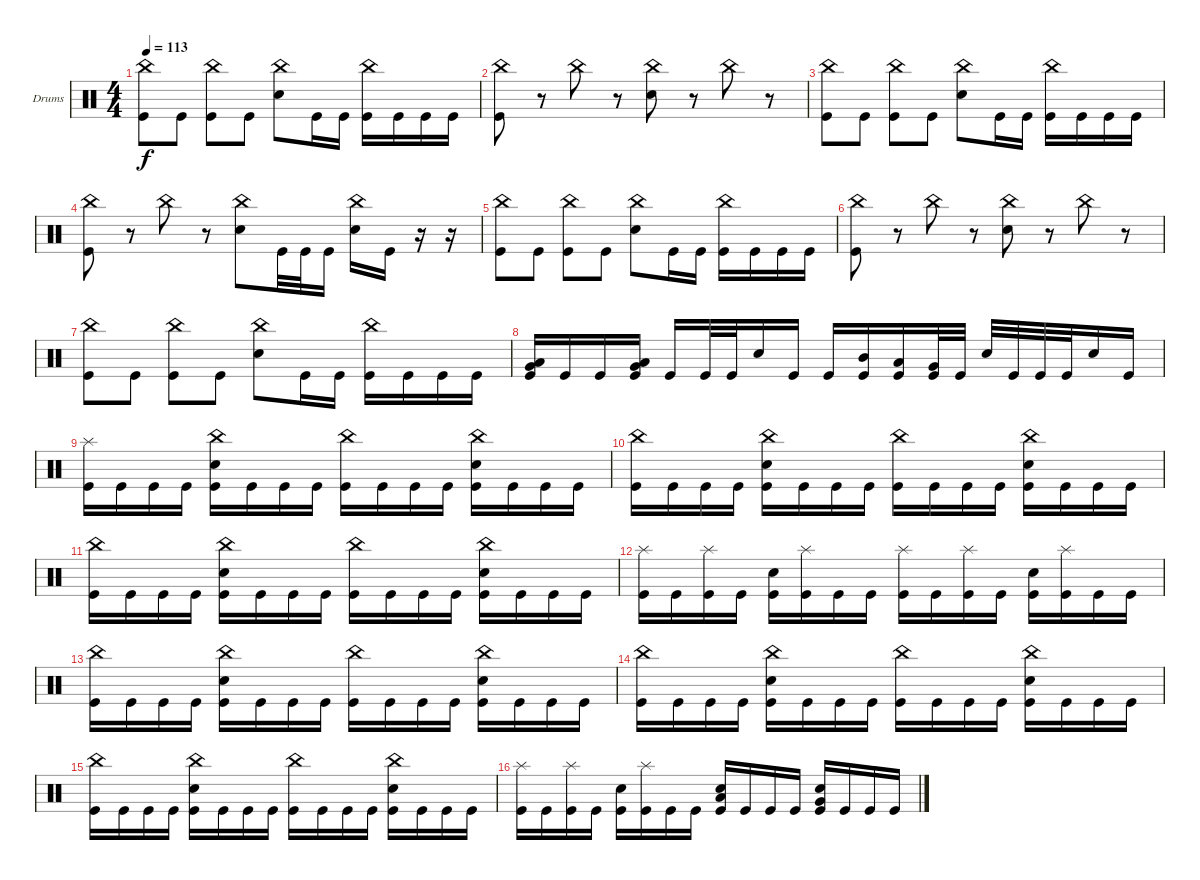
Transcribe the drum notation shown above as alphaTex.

\bracketExtendMode groupsimilarinstruments
\firstSystemTrackNameOrientation horizontal
\otherSystemsTrackNameOrientation horizontal
\track ("Drumkit" "Drums") {instrument percussion}
\staff {score}
\articulation defaults
\ts (4 4)
\tempo 113
\clef neutral
\ks c
("China (hit)" "Kick (hit)").8{dy f} "Kick (hit)".8 ("China (hit)" "Kick (hit)").8 "Kick (hit)".8 ("China (hit)" "Snare (hit) 2").8 "Kick (hit)".16 "Kick (hit)".16 ("China (hit)" "Kick (hit)").16 "Kick (hit)".16 "Kick (hit)".16 "Kick (hit)".16 |
("China (hit)" "Kick (hit)").8 r.8 "China (hit)".8 r.8 ("China (hit)" "Snare (hit) 2").8 r.8 "China (hit)".8 r.8 |
("China (hit)" "Kick (hit)").8 "Kick (hit)".8 ("China (hit)" "Kick (hit)").8 "Kick (hit)".8 ("China (hit)" "Snare (hit) 2").8 "Kick (hit)".16 "Kick (hit)".16 ("China (hit)" "Kick (hit)").16 "Kick (hit)".16 "Kick (hit)".16 "Kick (hit)".16 |
("China (hit)" "Kick (hit)").8 r.8 "China (hit)".8 r.8 ("China (hit)" "Snare (hit) 2").8 "Kick (hit)".32 "Kick (hit)".32 "Kick (hit)".16 ("China (hit)" "Snare (hit) 2").16 "Kick (hit)".16 r.16 r.16 |
("China (hit)" "Kick (hit)").8 "Kick (hit)".8 ("China (hit)" "Kick (hit)").8 "Kick (hit)".8 ("China (hit)" "Snare (hit) 2").8 "Kick (hit)".16 "Kick (hit)".16 ("China (hit)" "Kick (hit)").16 "Kick (hit)".16 "Kick (hit)".16 "Kick (hit)".16 |
("China (hit)" "Kick (hit)").8 r.8 "China (hit)".8 r.8 ("China (hit)" "Snare (hit) 2").8 r.8 "China (hit)".8 r.8 |
("China (hit)" "Kick (hit)").8 "Kick (hit)".8 ("China (hit)" "Kick (hit)").8 "Kick (hit)".8 ("China (hit)" "Snare (hit) 2").8 "Kick (hit)".16 "Kick (hit)".16 ("China (hit)" "Kick (hit)").16 "Kick (hit)".16 "Kick (hit)".16 "Kick (hit)".16 |
("Low Tom (hit)" "Very Low Tom (hit)" "Kick (hit)").16 "Kick (hit)".16 "Kick (hit)".16 ("Low Tom (hit)" "Very Low Tom (hit)" "Kick (hit)").16 "Kick (hit)".16 "Kick (hit)".32 "Kick (hit)".32 "Snare (hit) 2".16 "Kick (hit)".16 "Kick (hit)".16 ("Mid Tom (hit)" "Kick (hit)").16 ("Low Tom (hit)" "Kick (hit)").16 ("Very Low Tom (hit)" "Kick (hit)").32 "Kick (hit)".32 "Snare (hit) 2".32 "Kick (hit)".32 "Kick (hit)".32 "Kick (hit)".32 "Snare (hit) 2".16 "Kick (hit)".16 |
("Splash (hit)" "Kick (hit)").16 "Kick (hit)".16 "Kick (hit)".16 "Kick (hit)".16 ("China (hit)" "Snare (hit) 2" "Kick (hit)").16 "Kick (hit)".16 "Kick (hit)".16 "Kick (hit)".16 ("China (hit)" "Kick (hit)").16 "Kick (hit)".16 "Kick (hit)".16 "Kick (hit)".16 ("China (hit)" "Snare (hit) 2" "Kick (hit)").16 "Kick (hit)".16 "Kick (hit)".16 "Kick (hit)".16 |
("China (hit)" "Kick (hit)").16 "Kick (hit)".16 "Kick (hit)".16 "Kick (hit)".16 ("China (hit)" "Snare (hit) 2" "Kick (hit)").16 "Kick (hit)".16 "Kick (hit)".16 "Kick (hit)".16 ("China (hit)" "Kick (hit)").16 "Kick (hit)".16 "Kick (hit)".16 "Kick (hit)".16 ("China (hit)" "Snare (hit) 2" "Kick (hit)").16 "Kick (hit)".16 "Kick (hit)".16 "Kick (hit)".16 |
("China (hit)" "Kick (hit)").16 "Kick (hit)".16 "Kick (hit)".16 "Kick (hit)".16 ("China (hit)" "Snare (hit) 2" "Kick (hit)").16 "Kick (hit)".16 "Kick (hit)".16 "Kick (hit)".16 ("China (hit)" "Kick (hit)").16 "Kick (hit)".16 "Kick (hit)".16 "Kick (hit)".16 ("China (hit)" "Snare (hit) 2" "Kick (hit)").16 "Kick (hit)".16 "Kick (hit)".16 "Kick (hit)".16 |
("Splash (hit)" "Kick (hit)").16 "Kick (hit)".16 ("Splash (hit)" "Kick (hit)").16 "Kick (hit)".16 ("Snare (hit) 2" "Kick (hit)").16 ("Splash (hit)" "Kick (hit)").16 "Kick (hit)".16 "Kick (hit)".16 ("Splash (hit)" "Kick (hit)").16 "Kick (hit)".16 ("Splash (hit)" "Kick (hit)").16 "Kick (hit)".16 ("Snare (hit) 2" "Kick (hit)").16 ("Splash (hit)" "Kick (hit)").16 "Kick (hit)".16 "Kick (hit)".16 |
("China (hit)" "Kick (hit)").16 "Kick (hit)".16 "Kick (hit)".16 "Kick (hit)".16 ("China (hit)" "Snare (hit) 2" "Kick (hit)").16 "Kick (hit)".16 "Kick (hit)".16 "Kick (hit)".16 ("China (hit)" "Kick (hit)").16 "Kick (hit)".16 "Kick (hit)".16 "Kick (hit)".16 ("China (hit)" "Snare (hit) 2" "Kick (hit)").16 "Kick (hit)".16 "Kick (hit)".16 "Kick (hit)".16 |
("China (hit)" "Kick (hit)").16 "Kick (hit)".16 "Kick (hit)".16 "Kick (hit)".16 ("China (hit)" "Snare (hit) 2" "Kick (hit)").16 "Kick (hit)".16 "Kick (hit)".16 "Kick (hit)".16 ("China (hit)" "Kick (hit)").16 "Kick (hit)".16 "Kick (hit)".16 "Kick (hit)".16 ("China (hit)" "Snare (hit) 2" "Kick (hit)").16 "Kick (hit)".16 "Kick (hit)".16 "Kick (hit)".16 |
("China (hit)" "Kick (hit)").16 "Kick (hit)".16 "Kick (hit)".16 "Kick (hit)".16 ("China (hit)" "Snare (hit) 2" "Kick (hit)").16 "Kick (hit)".16 "Kick (hit)".16 "Kick (hit)".16 ("China (hit)" "Kick (hit)").16 "Kick (hit)".16 "Kick (hit)".16 "Kick (hit)".16 ("China (hit)" "Snare (hit) 2" "Kick (hit)").16 "Kick (hit)".16 "Kick (hit)".16 "Kick (hit)".16 |
("Splash (hit)" "Kick (hit)").16 "Kick (hit)".16 ("Splash (hit)" "Kick (hit)").16 "Kick (hit)".16 ("Snare (hit) 2" "Kick (hit)").16 ("Splash (hit)" "Kick (hit)").16 "Kick (hit)".16 "Kick (hit)".16 ("Snare (hit) 2" "Low Tom (hit)" "Kick (hit)").16 "Kick (hit)".16 "Kick (hit)".16 "Kick (hit)".16 ("Snare (hit) 2" "Very Low Tom (hit)" "Kick (hit)").16 "Kick (hit)".16 "Kick (hit)".16 "Kick (hit)".16
